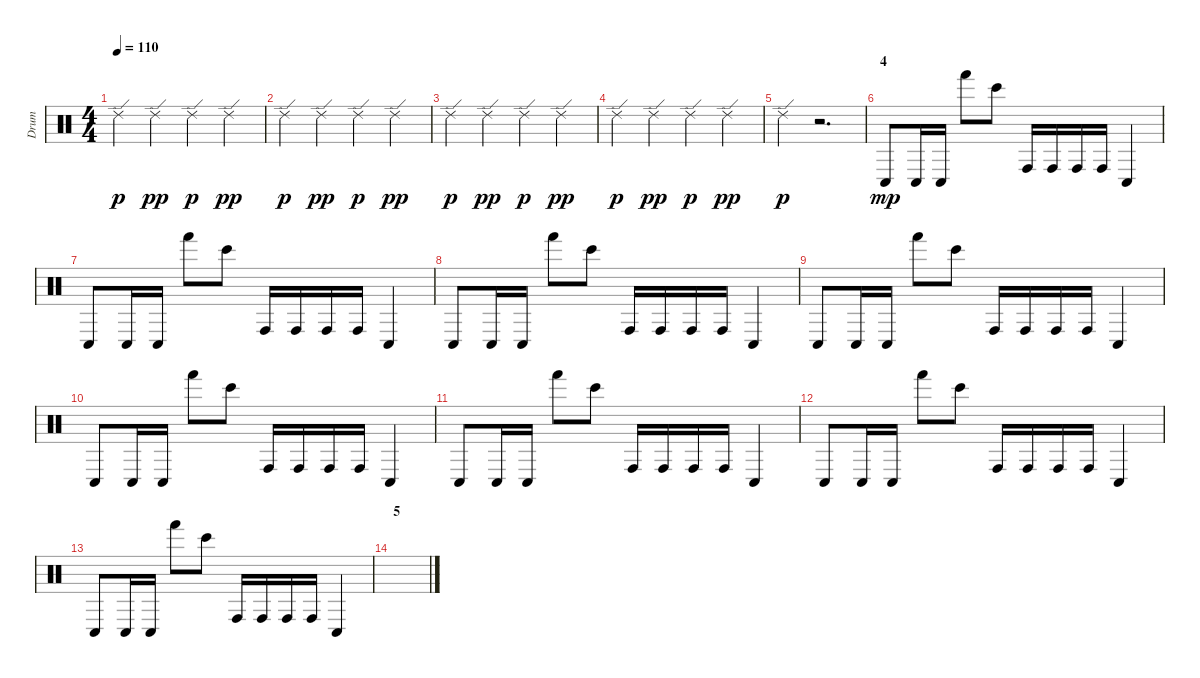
\track ("Drum" "Drum") {instrument percussion}
\staff {score}
\articulation defaults
\ts (4 4)
\tempo 110
\clef neutral
\ks c "Ride (edge) 2".4{dy p} "Ride (edge) 2".4{dy pp} "Ride (edge) 2".4{dy p} "Ride (edge) 2".4{dy pp}
|
"Ride (edge) 2".4{dy p} "Ride (edge) 2".4{dy pp} "Ride (edge) 2".4{dy p} "Ride (edge) 2".4{dy pp} |
"Ride (edge) 2".4{dy p} "Ride (edge) 2".4{dy pp} "Ride (edge) 2".4{dy p} "Ride (edge) 2".4{dy pp} |
"Ride (edge) 2".4{dy p} "Ride (edge) 2".4{dy pp} "Ride (edge) 2".4{dy p} "Ride (edge) 2".4{dy pp} |
"Ride (edge) 2".4{dy p} r.2{d} |
\section ("" "4")
"Conga low (hit)".8{dy mp} "Conga low (hit)".16 "Conga low (hit)".16 "Hand (hit)".8 "Bongo High (hit)".8 "Conga high (hit)".16 "Conga high (hit)".16 "Conga high (hit)".16 "Conga high (hit)".16 "Conga low (hit)".4 |
"Conga low (hit)".8 "Conga low (hit)".16 "Conga low (hit)".16 "Hand (hit)".8 "Bongo High (hit)".8 "Conga high (hit)".16 "Conga high (hit)".16 "Conga high (hit)".16 "Conga high (hit)".16 "Conga low (hit)".4 |
"Conga low (hit)".8 "Conga low (hit)".16 "Conga low (hit)".16 "Hand (hit)".8 "Bongo High (hit)".8 "Conga high (hit)".16 "Conga high (hit)".16 "Conga high (hit)".16 "Conga high (hit)".16 "Conga low (hit)".4 |
"Conga low (hit)".8 "Conga low (hit)".16 "Conga low (hit)".16 "Hand (hit)".8 "Bongo High (hit)".8 "Conga high (hit)".16 "Conga high (hit)".16 "Conga high (hit)".16 "Conga high (hit)".16 "Conga low (hit)".4 |
"Conga low (hit)".8 "Conga low (hit)".16 "Conga low (hit)".16 "Hand (hit)".8 "Bongo High (hit)".8 "Conga high (hit)".16 "Conga high (hit)".16 "Conga high (hit)".16 "Conga high (hit)".16 "Conga low (hit)".4 |
"Conga low (hit)".8 "Conga low (hit)".16 "Conga low (hit)".16 "Hand (hit)".8 "Bongo High (hit)".8 "Conga high (hit)".16 "Conga high (hit)".16 "Conga high (hit)".16 "Conga high (hit)".16 "Conga low (hit)".4 |
"Conga low (hit)".8 "Conga low (hit)".16 "Conga low (hit)".16 "Hand (hit)".8 "Bongo High (hit)".8 "Conga high (hit)".16 "Conga high (hit)".16 "Conga high (hit)".16 "Conga high (hit)".16 "Conga low (hit)".4 |
"Conga low (hit)".8 "Conga low (hit)".16 "Conga low (hit)".16 "Hand (hit)".8 "Bongo High (hit)".8 "Conga high (hit)".16 "Conga high (hit)".16 "Conga high (hit)".16 "Conga high (hit)".16 "Conga low (hit)".4 |
\section ("" "5")
